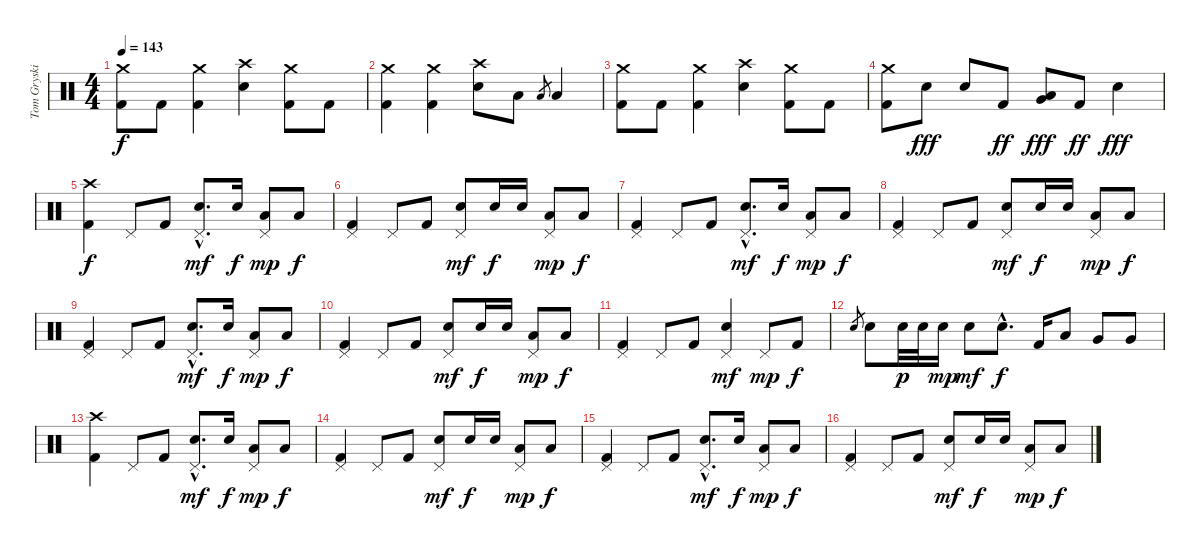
\track ("Tom Gryskiewicz - Drums" "Tom Gryski") {instrument percussion}
\staff {score}
\articulation defaults
\ts (4 4)
\tempo 143
\clef neutral
\ks c
("Crash medium (hit)" "Kick (hit) 2").8{dy f} "Kick (hit) 2".8 ("Crash medium (hit)" "Kick (hit) 2").4 ("Crash high (hit)" "Electric Snare (hit)").4 ("Crash medium (hit)" "Kick (hit) 2").8 "Kick (hit) 2".8 |
("Crash medium (hit)" "Kick (hit) 2").4 ("Crash medium (hit)" "Kick (hit) 2").4 ("Crash high (hit)" "Electric Snare (hit)").8 "Low Tom (hit)".8 "Low Tom (hit)".8{gr} "Low Tom (hit)".4 |
("Crash medium (hit)" "Kick (hit) 2").8 "Kick (hit) 2".8 ("Crash medium (hit)" "Kick (hit) 2").4 ("Crash high (hit)" "Electric Snare (hit)").4 ("Crash medium (hit)" "Kick (hit) 2").8 "Kick (hit) 2".8 |
("Crash medium (hit)" "Kick (hit) 2").8 "Electric Snare (hit)".8{dy fff} "Electric Snare (hit)".8 "Kick (hit) 2".8{dy ff} ("Very Low Tom (hit)" "Low Tom (hit)").8{dy fff} "Kick (hit) 2".8{dy ff} "Electric Snare (hit)".4{dy fff} |
("Crash high (hit)" "Kick (hit) 2").4{dy f} "Pedal Hi-Hat (hit)".8 "Kick (hit) 2".8 ("Pedal Hi-Hat (hit)"{hac} "Electric Snare (hit)"{hac}).8{d dy mf} "Electric Snare (hit)".16{dy f} ("Pedal Hi-Hat (hit)" "Low Tom (hit)").8{dy mp} "Low Tom (hit)".8{dy f} |
("Pedal Hi-Hat (hit)" "Kick (hit) 2").4 "Pedal Hi-Hat (hit)".8 "Kick (hit) 2".8 ("Pedal Hi-Hat (hit)" "Electric Snare (hit)").8{dy mf} "Electric Snare (hit)".16{dy f} "Electric Snare (hit)".16 ("Pedal Hi-Hat (hit)" "Low Tom (hit)").8{dy mp} "Low Tom (hit)".8{dy f} |
("Pedal Hi-Hat (hit)" "Kick (hit) 2").4 "Pedal Hi-Hat (hit)".8 "Kick (hit) 2".8 ("Pedal Hi-Hat (hit)"{hac} "Electric Snare (hit)"{hac}).8{d dy mf} "Electric Snare (hit)".16{dy f} ("Pedal Hi-Hat (hit)" "Low Tom (hit)").8{dy mp} "Low Tom (hit)".8{dy f} |
("Pedal Hi-Hat (hit)" "Kick (hit) 2").4 "Pedal Hi-Hat (hit)".8 "Kick (hit) 2".8 ("Pedal Hi-Hat (hit)" "Electric Snare (hit)").8{dy mf} "Electric Snare (hit)".16{dy f} "Electric Snare (hit)".16 ("Pedal Hi-Hat (hit)" "Low Tom (hit)").8{dy mp} "Low Tom (hit)".8{dy f} |
("Pedal Hi-Hat (hit)" "Kick (hit) 2").4 "Pedal Hi-Hat (hit)".8 "Kick (hit) 2".8 ("Pedal Hi-Hat (hit)"{hac} "Electric Snare (hit)"{hac}).8{d dy mf} "Electric Snare (hit)".16{dy f} ("Pedal Hi-Hat (hit)" "Low Tom (hit)").8{dy mp} "Low Tom (hit)".8{dy f} |
("Pedal Hi-Hat (hit)" "Kick (hit) 2").4 "Pedal Hi-Hat (hit)".8 "Kick (hit) 2".8 ("Pedal Hi-Hat (hit)" "Electric Snare (hit)").8{dy mf} "Electric Snare (hit)".16{dy f} "Electric Snare (hit)".16 ("Pedal Hi-Hat (hit)" "Low Tom (hit)").8{dy mp} "Low Tom (hit)".8{dy f} |
("Pedal Hi-Hat (hit)" "Kick (hit) 2").4 "Pedal Hi-Hat (hit)".8 "Kick (hit) 2".8 ("Pedal Hi-Hat (hit)" "Electric Snare (hit)").4{dy mf} "Pedal Hi-Hat (hit)".8{dy mp} "Kick (hit) 2".8{dy f} |
"Electric Snare (hit)".8{gr} "Electric Snare (hit)".8 "Electric Snare (hit)".32{dy p} "Electric Snare (hit)".32 "Electric Snare (hit)".16{dy mp} "Electric Snare (hit)".8{dy mf} "Electric Snare (hit)"{hac}.8{d dy f} "Kick (hit) 2".16 "Low Tom (hit)".8 "Very Low Tom (hit)".8 "Very Low Tom (hit)".8 |
("Crash high (hit)" "Kick (hit) 2").4 "Pedal Hi-Hat (hit)".8 "Kick (hit) 2".8 ("Pedal Hi-Hat (hit)"{hac} "Electric Snare (hit)"{hac}).8{d dy mf} "Electric Snare (hit)".16{dy f} ("Pedal Hi-Hat (hit)" "Low Tom (hit)").8{dy mp} "Low Tom (hit)".8{dy f} |
("Pedal Hi-Hat (hit)" "Kick (hit) 2").4 "Pedal Hi-Hat (hit)".8 "Kick (hit) 2".8 ("Pedal Hi-Hat (hit)" "Electric Snare (hit)").8{dy mf} "Electric Snare (hit)".16{dy f} "Electric Snare (hit)".16 ("Pedal Hi-Hat (hit)" "Low Tom (hit)").8{dy mp} "Low Tom (hit)".8{dy f} |
("Pedal Hi-Hat (hit)" "Kick (hit) 2").4 "Pedal Hi-Hat (hit)".8 "Kick (hit) 2".8 ("Pedal Hi-Hat (hit)"{hac} "Electric Snare (hit)"{hac}).8{d dy mf} "Electric Snare (hit)".16{dy f} ("Pedal Hi-Hat (hit)" "Low Tom (hit)").8{dy mp} "Low Tom (hit)".8{dy f} |
("Pedal Hi-Hat (hit)" "Kick (hit) 2").4 "Pedal Hi-Hat (hit)".8 "Kick (hit) 2".8 ("Pedal Hi-Hat (hit)" "Electric Snare (hit)").8{dy mf} "Electric Snare (hit)".16{dy f} "Electric Snare (hit)".16 ("Pedal Hi-Hat (hit)" "Low Tom (hit)").8{dy mp} "Low Tom (hit)".8{dy f}
